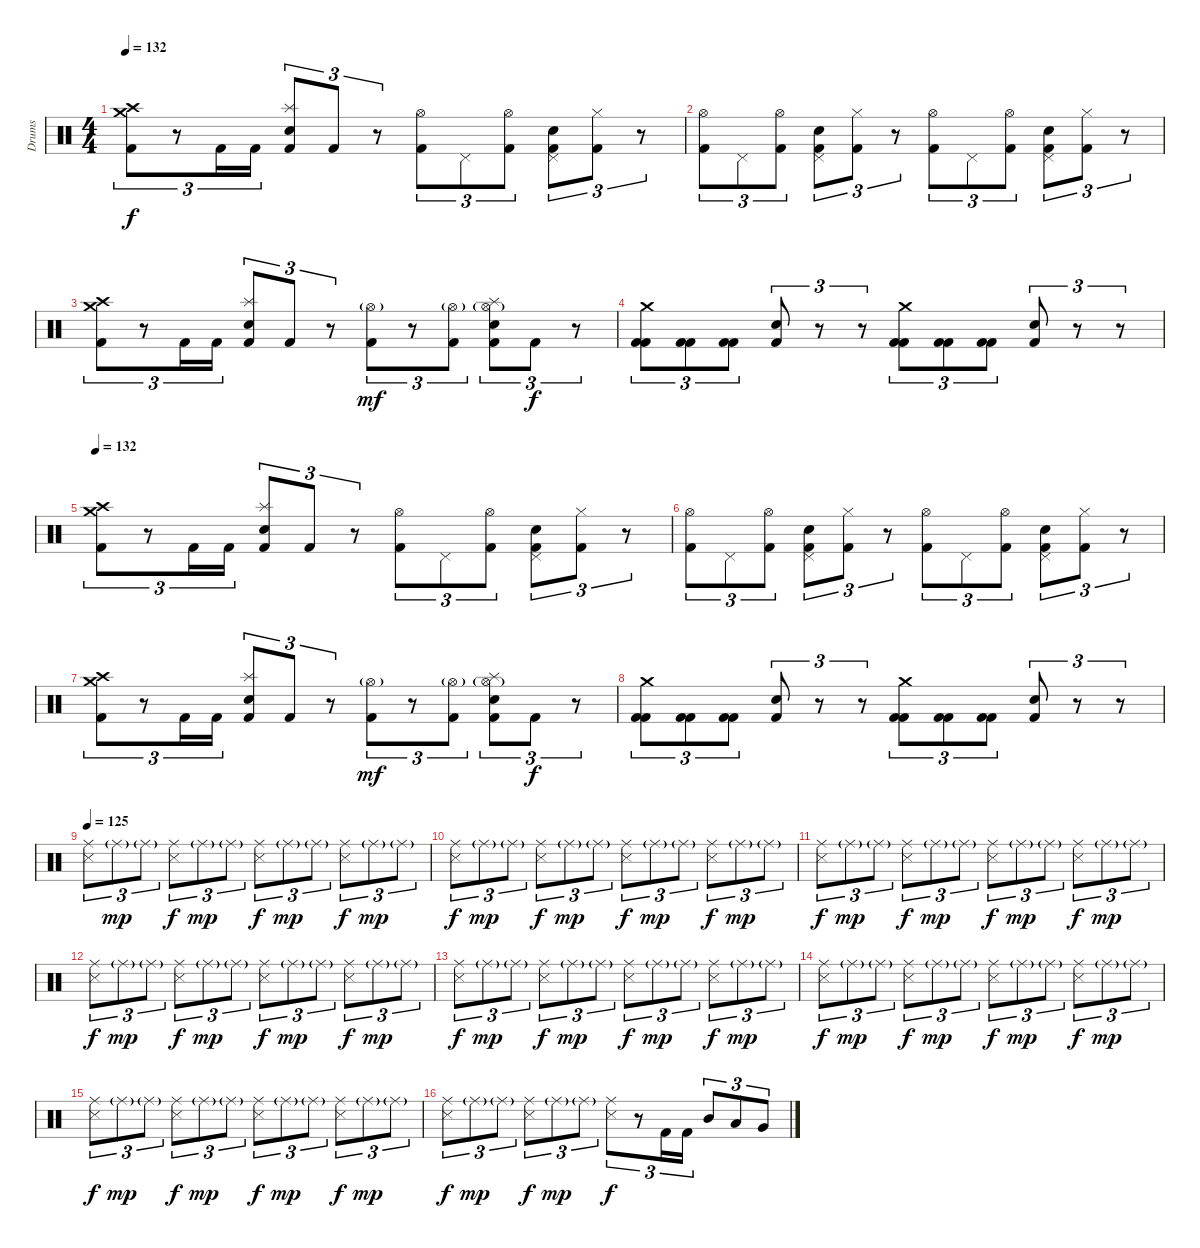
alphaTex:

\track ("Drums" "Drums") {instrument percussion}
\staff {score}
\articulation defaults
\ts (4 4)
\tempo 132
\clef neutral
\ks c
("Crash high (hit)" "Crash medium (hit)" "Kick (hit) 2").8{tu (3 2) dy f} r.8{tu (3 2)} "Kick (hit) 2".16{tu (3 2)} "Kick (hit) 2".16{tu (3 2)} ("Splash (hit)" "Snare (hit) 2" "Kick (hit) 2").8{tu (3 2)} "Kick (hit) 2".8{tu (3 2)} r.8{tu (3 2)} ("Hi-Hat (open)" "Kick (hit) 2").8{tu (3 2)} "Pedal Hi-Hat (hit)".8{tu (3 2)} ("Hi-Hat (open)" "Kick (hit) 2").8{tu (3 2)} ("Pedal Hi-Hat (hit)" "Snare (hit) 2" "Kick (hit) 2").8{tu (3 2)} ("Hi-Hat (closed)" "Kick (hit) 2").8{tu (3 2)} r.8{tu (3 2)} |
("Hi-Hat (open)" "Kick (hit) 2").8{tu (3 2)} "Pedal Hi-Hat (hit)".8{tu (3 2)} ("Hi-Hat (open)" "Kick (hit) 2").8{tu (3 2)} ("Pedal Hi-Hat (hit)" "Snare (hit) 2" "Kick (hit) 2").8{tu (3 2)} ("Hi-Hat (closed)" "Kick (hit) 2").8{tu (3 2)} r.8{tu (3 2)} ("Hi-Hat (open)" "Kick (hit) 2").8{tu (3 2)} "Pedal Hi-Hat (hit)".8{tu (3 2)} ("Hi-Hat (open)" "Kick (hit) 2").8{tu (3 2)} ("Pedal Hi-Hat (hit)" "Snare (hit) 2" "Kick (hit) 2").8{tu (3 2)} ("Hi-Hat (closed)" "Kick (hit) 2").8{tu (3 2)} r.8{tu (3 2)} |
("Crash high (hit)" "Crash medium (hit)" "Kick (hit) 2").8{tu (3 2)} r.8{tu (3 2)} "Kick (hit) 2".16{tu (3 2)} "Kick (hit) 2".16{tu (3 2)} ("Splash (hit)" "Snare (hit) 2" "Kick (hit) 2").8{tu (3 2)} "Kick (hit) 2".8{tu (3 2)} r.8{tu (3 2)} ("Hi-Hat (open)"{g} "Kick (hit) 2").8{tu (3 2) dy mf} r.8{tu (3 2)} ("Hi-Hat (open)"{g} "Kick (hit) 2").8{tu (3 2)} ("Splash (hit)" "Hi-Hat (open)"{g} "Snare (hit) 2" "Kick (hit) 2").8{tu (3 2)} "Kick (hit) 2".8{tu (3 2) dy f} r.8{tu (3 2)} |
("Crash medium (hit)" "Kick (hit) 2" "Kick (hit) 2").8{tu (3 2)} ("Kick (hit) 2" "Kick (hit) 2").8{tu (3 2)} ("Kick (hit) 2" "Kick (hit) 2").8{tu (3 2)} ("Snare (hit) 2" "Kick (hit) 2").8{tu (3 2)} r.8{tu (3 2)} r.8{tu (3 2)} ("Crash medium (hit)" "Kick (hit) 2" "Kick (hit) 2").8{tu (3 2)} ("Kick (hit) 2" "Kick (hit) 2").8{tu (3 2)} ("Kick (hit) 2" "Kick (hit) 2").8{tu (3 2)} ("Snare (hit) 2" "Kick (hit) 2").8{tu (3 2)} r.8{tu (3 2)} r.8{tu (3 2)} |
\tempo 132
("Crash high (hit)" "Crash medium (hit)" "Kick (hit) 2").8{tu (3 2)} r.8{tu (3 2)} "Kick (hit) 2".16{tu (3 2)} "Kick (hit) 2".16{tu (3 2)} ("Splash (hit)" "Snare (hit) 2" "Kick (hit) 2").8{tu (3 2)} "Kick (hit) 2".8{tu (3 2)} r.8{tu (3 2)} ("Hi-Hat (open)" "Kick (hit) 2").8{tu (3 2)} "Pedal Hi-Hat (hit)".8{tu (3 2)} ("Hi-Hat (open)" "Kick (hit) 2").8{tu (3 2)} ("Pedal Hi-Hat (hit)" "Snare (hit) 2" "Kick (hit) 2").8{tu (3 2)} ("Hi-Hat (closed)" "Kick (hit) 2").8{tu (3 2)} r.8{tu (3 2)} |
("Hi-Hat (open)" "Kick (hit) 2").8{tu (3 2)} "Pedal Hi-Hat (hit)".8{tu (3 2)} ("Hi-Hat (open)" "Kick (hit) 2").8{tu (3 2)} ("Pedal Hi-Hat (hit)" "Snare (hit) 2" "Kick (hit) 2").8{tu (3 2)} ("Hi-Hat (closed)" "Kick (hit) 2").8{tu (3 2)} r.8{tu (3 2)} ("Hi-Hat (open)" "Kick (hit) 2").8{tu (3 2)} "Pedal Hi-Hat (hit)".8{tu (3 2)} ("Hi-Hat (open)" "Kick (hit) 2").8{tu (3 2)} ("Pedal Hi-Hat (hit)" "Snare (hit) 2" "Kick (hit) 2").8{tu (3 2)} ("Hi-Hat (closed)" "Kick (hit) 2").8{tu (3 2)} r.8{tu (3 2)} |
("Crash high (hit)" "Crash medium (hit)" "Kick (hit) 2").8{tu (3 2)} r.8{tu (3 2)} "Kick (hit) 2".16{tu (3 2)} "Kick (hit) 2".16{tu (3 2)} ("Splash (hit)" "Snare (hit) 2" "Kick (hit) 2").8{tu (3 2)} "Kick (hit) 2".8{tu (3 2)} r.8{tu (3 2)} ("Hi-Hat (open)"{g} "Kick (hit) 2").8{tu (3 2) dy mf} r.8{tu (3 2)} ("Hi-Hat (open)"{g} "Kick (hit) 2").8{tu (3 2)} ("Splash (hit)" "Hi-Hat (open)"{g} "Snare (hit) 2" "Kick (hit) 2").8{tu (3 2)} "Kick (hit) 2".8{tu (3 2) dy f} r.8{tu (3 2)} |
("Crash medium (hit)" "Kick (hit) 2" "Kick (hit) 2").8{tu (3 2)} ("Kick (hit) 2" "Kick (hit) 2").8{tu (3 2)} ("Kick (hit) 2" "Kick (hit) 2").8{tu (3 2)} ("Snare (hit) 2" "Kick (hit) 2").8{tu (3 2)} r.8{tu (3 2)} r.8{tu (3 2)} ("Crash medium (hit)" "Kick (hit) 2" "Kick (hit) 2").8{tu (3 2)} ("Kick (hit) 2" "Kick (hit) 2").8{tu (3 2)} ("Kick (hit) 2" "Kick (hit) 2").8{tu (3 2)} ("Snare (hit) 2" "Kick (hit) 2").8{tu (3 2)} r.8{tu (3 2)} r.8{tu (3 2)} |
\tempo 125
("Ride (middle)" "Metronome (hit)").8{tu (3 2)} "Ride (middle)"{g}.8{tu (3 2) dy mp} "Ride (middle)"{g}.8{tu (3 2)} ("Ride (middle)" "Metronome (hit)").8{tu (3 2) dy f} "Ride (middle)"{g}.8{tu (3 2) dy mp} "Ride (middle)"{g}.8{tu (3 2)} ("Ride (middle)" "Metronome (hit)").8{tu (3 2) dy f} "Ride (middle)"{g}.8{tu (3 2) dy mp} "Ride (middle)"{g}.8{tu (3 2)} ("Ride (middle)" "Metronome (hit)").8{tu (3 2) dy f} "Ride (middle)"{g}.8{tu (3 2) dy mp} "Ride (middle)"{g}.8{tu (3 2)} |
("Ride (middle)" "Metronome (hit)").8{tu (3 2) dy f} "Ride (middle)"{g}.8{tu (3 2) dy mp} "Ride (middle)"{g}.8{tu (3 2)} ("Ride (middle)" "Metronome (hit)").8{tu (3 2) dy f} "Ride (middle)"{g}.8{tu (3 2) dy mp} "Ride (middle)"{g}.8{tu (3 2)} ("Ride (middle)" "Metronome (hit)").8{tu (3 2) dy f} "Ride (middle)"{g}.8{tu (3 2) dy mp} "Ride (middle)"{g}.8{tu (3 2)} ("Ride (middle)" "Metronome (hit)").8{tu (3 2) dy f} "Ride (middle)"{g}.8{tu (3 2) dy mp} "Ride (middle)"{g}.8{tu (3 2)} |
("Ride (middle)" "Metronome (hit)").8{tu (3 2) dy f} "Ride (middle)"{g}.8{tu (3 2) dy mp} "Ride (middle)"{g}.8{tu (3 2)} ("Ride (middle)" "Metronome (hit)").8{tu (3 2) dy f} "Ride (middle)"{g}.8{tu (3 2) dy mp} "Ride (middle)"{g}.8{tu (3 2)} ("Ride (middle)" "Metronome (hit)").8{tu (3 2) dy f} "Ride (middle)"{g}.8{tu (3 2) dy mp} "Ride (middle)"{g}.8{tu (3 2)} ("Ride (middle)" "Metronome (hit)").8{tu (3 2) dy f} "Ride (middle)"{g}.8{tu (3 2) dy mp} "Ride (middle)"{g}.8{tu (3 2)} |
("Ride (middle)" "Metronome (hit)").8{tu (3 2) dy f} "Ride (middle)"{g}.8{tu (3 2) dy mp} "Ride (middle)"{g}.8{tu (3 2)} ("Ride (middle)" "Metronome (hit)").8{tu (3 2) dy f} "Ride (middle)"{g}.8{tu (3 2) dy mp} "Ride (middle)"{g}.8{tu (3 2)} ("Ride (middle)" "Metronome (hit)").8{tu (3 2) dy f} "Ride (middle)"{g}.8{tu (3 2) dy mp} "Ride (middle)"{g}.8{tu (3 2)} ("Ride (middle)" "Metronome (hit)").8{tu (3 2) dy f} "Ride (middle)"{g}.8{tu (3 2) dy mp} "Ride (middle)"{g}.8{tu (3 2)} |
("Ride (middle)" "Metronome (hit)").8{tu (3 2) dy f} "Ride (middle)"{g}.8{tu (3 2) dy mp} "Ride (middle)"{g}.8{tu (3 2)} ("Ride (middle)" "Metronome (hit)").8{tu (3 2) dy f} "Ride (middle)"{g}.8{tu (3 2) dy mp} "Ride (middle)"{g}.8{tu (3 2)} ("Ride (middle)" "Metronome (hit)").8{tu (3 2) dy f} "Ride (middle)"{g}.8{tu (3 2) dy mp} "Ride (middle)"{g}.8{tu (3 2)} ("Ride (middle)" "Metronome (hit)").8{tu (3 2) dy f} "Ride (middle)"{g}.8{tu (3 2) dy mp} "Ride (middle)"{g}.8{tu (3 2)} |
("Ride (middle)" "Metronome (hit)").8{tu (3 2) dy f} "Ride (middle)"{g}.8{tu (3 2) dy mp} "Ride (middle)"{g}.8{tu (3 2)} ("Ride (middle)" "Metronome (hit)").8{tu (3 2) dy f} "Ride (middle)"{g}.8{tu (3 2) dy mp} "Ride (middle)"{g}.8{tu (3 2)} ("Ride (middle)" "Metronome (hit)").8{tu (3 2) dy f} "Ride (middle)"{g}.8{tu (3 2) dy mp} "Ride (middle)"{g}.8{tu (3 2)} ("Ride (middle)" "Metronome (hit)").8{tu (3 2) dy f} "Ride (middle)"{g}.8{tu (3 2) dy mp} "Ride (middle)"{g}.8{tu (3 2)} |
("Ride (middle)" "Metronome (hit)").8{tu (3 2) dy f} "Ride (middle)"{g}.8{tu (3 2) dy mp} "Ride (middle)"{g}.8{tu (3 2)} ("Ride (middle)" "Metronome (hit)").8{tu (3 2) dy f} "Ride (middle)"{g}.8{tu (3 2) dy mp} "Ride (middle)"{g}.8{tu (3 2)} ("Ride (middle)" "Metronome (hit)").8{tu (3 2) dy f} "Ride (middle)"{g}.8{tu (3 2) dy mp} "Ride (middle)"{g}.8{tu (3 2)} ("Ride (middle)" "Metronome (hit)").8{tu (3 2) dy f} "Ride (middle)"{g}.8{tu (3 2) dy mp} "Ride (middle)"{g}.8{tu (3 2)} |
("Ride (middle)" "Metronome (hit)").8{tu (3 2) dy f} "Ride (middle)"{g}.8{tu (3 2) dy mp} "Ride (middle)"{g}.8{tu (3 2)} ("Ride (middle)" "Metronome (hit)").8{tu (3 2) dy f} "Ride (middle)"{g}.8{tu (3 2) dy mp} "Ride (middle)"{g}.8{tu (3 2)} ("Ride (middle)" "Metronome (hit)").8{tu (3 2) dy f} r.8{tu (3 2)} "Kick (hit) 2".16{tu (3 2)} "Kick (hit) 2".16{tu (3 2)} "Mid Tom (hit)".8{tu (3 2)} "Low Tom (hit)".8{tu (3 2)} "Very Low Tom (hit)".8{tu (3 2)}
